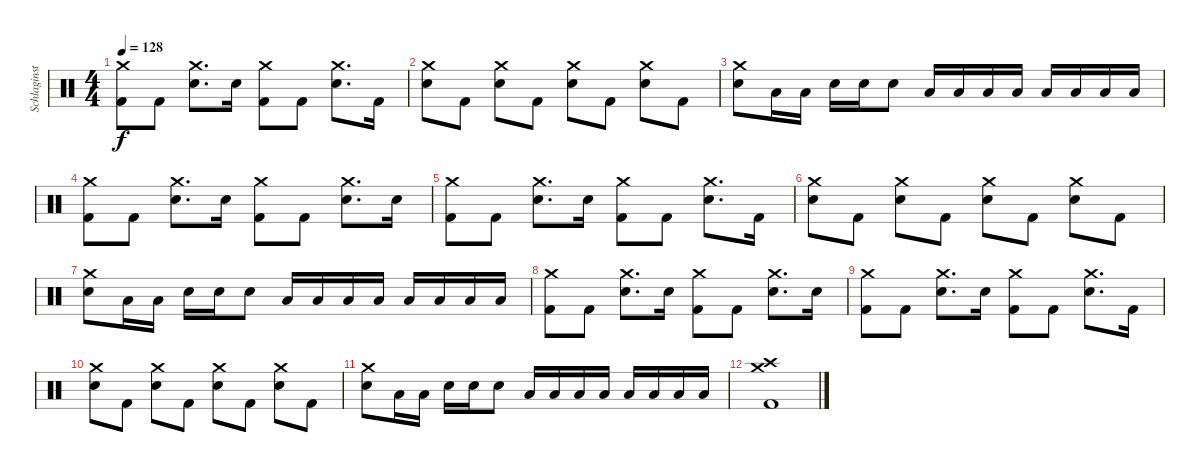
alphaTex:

\track ("Schlaginstrumente - Auswahl" "Schlaginst") {instrument percussion}
\staff {score}
\articulation defaults
\ts (4 4)
\tempo 128
\clef neutral
\ks c
("Crash medium (hit)" "Kick (hit) 2").8{dy f} "Kick (hit) 2".8 ("Crash medium (hit)" "Snare (hit) 2").8{d} "Snare (hit) 2".16 ("Crash medium (hit)" "Kick (hit) 2").8 "Kick (hit) 2".8 ("Crash medium (hit)" "Snare (hit) 2").8{d} "Kick (hit) 2".16 |
("Crash medium (hit)" "Snare (hit) 2").8 "Kick (hit) 2".8 ("Crash medium (hit)" "Snare (hit) 2").8 "Kick (hit) 2".8 ("Crash medium (hit)" "Snare (hit) 2").8 "Kick (hit) 2".8 ("Crash medium (hit)" "Snare (hit) 2").8 "Kick (hit) 2".8 |
("Crash medium (hit)" "Snare (hit) 2").8 "Low Tom (hit)".16 "Low Tom (hit)".16 "Snare (hit) 2".16 "Snare (hit) 2".16 "Snare (hit) 2".8 "Low Tom (hit)".16 "Low Tom (hit)".16 "Low Tom (hit)".16 "Low Tom (hit)".16 "Low Floor Tom (hit)".16 "Low Floor Tom (hit)".16 "Low Floor Tom (hit)".16 "Low Floor Tom (hit)".16 |
("Crash medium (hit)" "Kick (hit) 2").8 "Kick (hit) 2".8 ("Crash medium (hit)" "Snare (hit) 2").8{d} "Snare (hit) 2".16 ("Crash medium (hit)" "Kick (hit) 2").8 "Kick (hit) 2".8 ("Crash medium (hit)" "Snare (hit) 2").8{d} "Snare (hit) 2".16 |
("Crash medium (hit)" "Kick (hit) 2").8 "Kick (hit) 2".8 ("Crash medium (hit)" "Snare (hit) 2").8{d} "Snare (hit) 2".16 ("Crash medium (hit)" "Kick (hit) 2").8 "Kick (hit) 2".8 ("Crash medium (hit)" "Snare (hit) 2").8{d} "Kick (hit) 2".16 |
("Crash medium (hit)" "Snare (hit) 2").8 "Kick (hit) 2".8 ("Crash medium (hit)" "Snare (hit) 2").8 "Kick (hit) 2".8 ("Crash medium (hit)" "Snare (hit) 2").8 "Kick (hit) 2".8 ("Crash medium (hit)" "Snare (hit) 2").8 "Kick (hit) 2".8 |
("Crash medium (hit)" "Snare (hit) 2").8 "Low Tom (hit)".16 "Low Tom (hit)".16 "Snare (hit) 2".16 "Snare (hit) 2".16 "Snare (hit) 2".8 "Low Tom (hit)".16 "Low Tom (hit)".16 "Low Tom (hit)".16 "Low Tom (hit)".16 "Low Floor Tom (hit)".16 "Low Floor Tom (hit)".16 "Low Floor Tom (hit)".16 "Low Floor Tom (hit)".16 |
("Crash medium (hit)" "Kick (hit) 2").8 "Kick (hit) 2".8 ("Crash medium (hit)" "Snare (hit) 2").8{d} "Snare (hit) 2".16 ("Crash medium (hit)" "Kick (hit) 2").8 "Kick (hit) 2".8 ("Crash medium (hit)" "Snare (hit) 2").8{d} "Snare (hit) 2".16 |
("Crash medium (hit)" "Kick (hit) 2").8 "Kick (hit) 2".8 ("Crash medium (hit)" "Snare (hit) 2").8{d} "Snare (hit) 2".16 ("Crash medium (hit)" "Kick (hit) 2").8 "Kick (hit) 2".8 ("Crash medium (hit)" "Snare (hit) 2").8{d} "Kick (hit) 2".16 |
("Crash medium (hit)" "Snare (hit) 2").8 "Kick (hit) 2".8 ("Crash medium (hit)" "Snare (hit) 2").8 "Kick (hit) 2".8 ("Crash medium (hit)" "Snare (hit) 2").8 "Kick (hit) 2".8 ("Crash medium (hit)" "Snare (hit) 2").8 "Kick (hit) 2".8 |
("Crash medium (hit)" "Snare (hit) 2").8 "Low Tom (hit)".16 "Low Tom (hit)".16 "Snare (hit) 2".16 "Snare (hit) 2".16 "Snare (hit) 2".8 "Low Tom (hit)".16 "Low Tom (hit)".16 "Low Tom (hit)".16 "Low Tom (hit)".16 "Low Floor Tom (hit)".16 "Low Floor Tom (hit)".16 "Low Floor Tom (hit)".16 "Low Floor Tom (hit)".16 |
("Crash medium (hit)" "Crash high (hit)" "Kick (hit) 2").1
